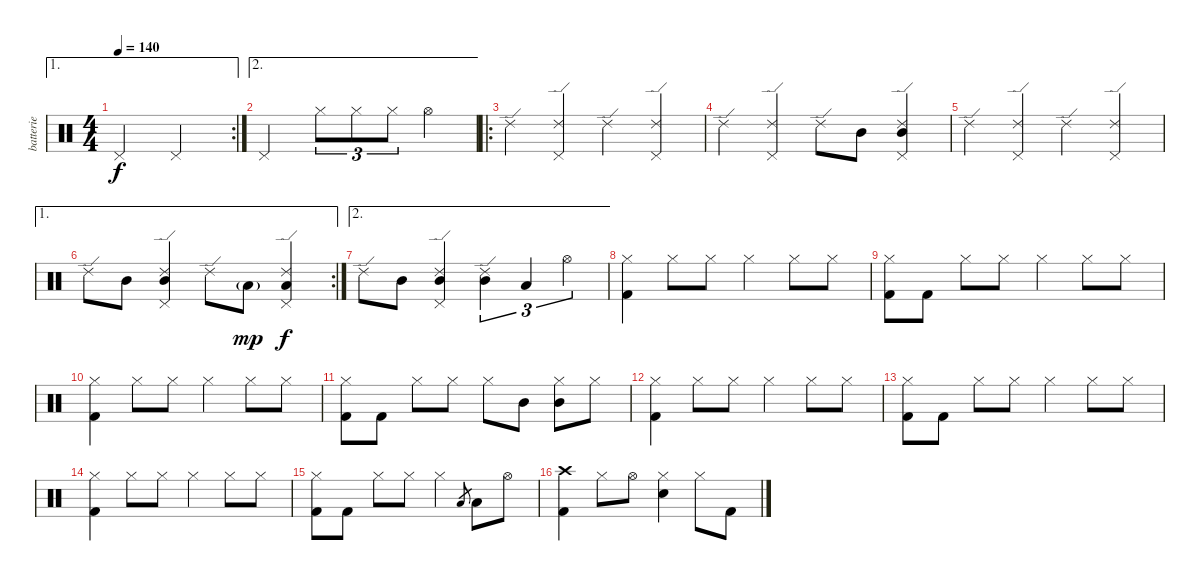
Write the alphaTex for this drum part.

\track ("batterie" "batterie") {instrument percussion}
\staff {score}
\articulation defaults
\ae 1
\rc 2
\ts (4 4)
\tempo 140
\clef neutral
\ks c "Pedal Hi-Hat (hit)".2{dy f} "Pedal Hi-Hat (hit)".2
|
\ae 2 "Pedal Hi-Hat (hit)".2 "Hi-Hat (closed)".8{tu (3 2)} "Hi-Hat (closed)".8{tu (3 2)} "Hi-Hat (closed)".8{tu (3 2)} "Hi-Hat (open)".4
|
\ro "Ride (edge) 2".4
("Ride (edge) 2" "Pedal Hi-Hat (hit)").4 "Ride (edge) 2".4 ("Ride (edge) 2" "Pedal Hi-Hat (hit)").4 |
"Ride (edge) 2".4 ("Ride (edge) 2" "Pedal Hi-Hat (hit)").4 "Ride (edge) 2".8 "Mid Tom (hit)".8 ("Ride (edge) 2" "Mid Tom (hit)" "Pedal Hi-Hat (hit)").4 |
"Ride (edge) 2".4 ("Ride (edge) 2" "Pedal Hi-Hat (hit)").4 "Ride (edge) 2".4 ("Ride (edge) 2" "Pedal Hi-Hat (hit)").4 |
\ae 1
\rc 2 "Ride (edge) 2".8 "Mid Tom (hit)".8
("Ride (edge) 2" "Mid Tom (hit)" "Pedal Hi-Hat (hit)").4 "Ride (edge) 2".8 "Low Tom (hit)"{g}.8{dy mp} ("Ride (edge) 2" "Low Tom (hit)" "Pedal Hi-Hat (hit)").4{dy f} |
\ae 2 "Ride (edge) 2".8 "Mid Tom (hit)".8
("Ride (edge) 2" "Mid Tom (hit)" "Pedal Hi-Hat (hit)").4 ("Ride (edge) 2" "Mid Tom (hit)").4{tu (3 2)} "Low Tom (hit)".4{tu (3 2)} "Hi-Hat (open)".4{tu (3 2)} |
("Hi-Hat (closed)" "Kick (hit) 2").4 "Hi-Hat (closed)".8 "Hi-Hat (closed)".8 "Hi-Hat (closed)".4 "Hi-Hat (closed)".8 "Hi-Hat (closed)".8 |
("Hi-Hat (closed)" "Kick (hit) 2").8 "Kick (hit) 2".8 "Hi-Hat (closed)".8 "Hi-Hat (closed)".8 "Hi-Hat (closed)".4 "Hi-Hat (closed)".8 "Hi-Hat (closed)".8 |
("Hi-Hat (closed)" "Kick (hit) 2").4 "Hi-Hat (closed)".8 "Hi-Hat (closed)".8 "Hi-Hat (closed)".4 "Hi-Hat (closed)".8 "Hi-Hat (closed)".8 |
("Hi-Hat (closed)" "Kick (hit) 2").8 "Kick (hit) 2".8 "Hi-Hat (closed)".8 "Hi-Hat (closed)".8 "Hi-Hat (closed)".8 "Mid Tom (hit)".8 ("Hi-Hat (closed)" "Mid Tom (hit)").8 "Hi-Hat (closed)".8 |
("Hi-Hat (closed)" "Kick (hit) 2").4 "Hi-Hat (closed)".8 "Hi-Hat (closed)".8 "Hi-Hat (closed)".4 "Hi-Hat (closed)".8 "Hi-Hat (closed)".8 |
("Hi-Hat (closed)" "Kick (hit) 2").8 "Kick (hit) 2".8 "Hi-Hat (closed)".8 "Hi-Hat (closed)".8 "Hi-Hat (closed)".4 "Hi-Hat (closed)".8 "Hi-Hat (closed)".8 |
("Hi-Hat (closed)" "Kick (hit) 2").4 "Hi-Hat (closed)".8 "Hi-Hat (closed)".8 "Hi-Hat (closed)".4 "Hi-Hat (closed)".8 "Hi-Hat (closed)".8 |
("Hi-Hat (closed)" "Kick (hit) 2").8 "Kick (hit) 2".8 "Hi-Hat (closed)".8 "Hi-Hat (closed)".8 "Hi-Hat (closed)".4 "Low Floor Tom (hit)".8{gr} "Low Floor Tom (hit)".8 "Hi-Hat (open)".8 |
("Crash high (hit)" "Kick (hit) 2").4 "Hi-Hat (closed)".8 "Hi-Hat (open)".8 ("Hi-Hat (closed)" "Electric Snare (hit)").4 "Hi-Hat (closed)".8 "Kick (hit) 2".8
